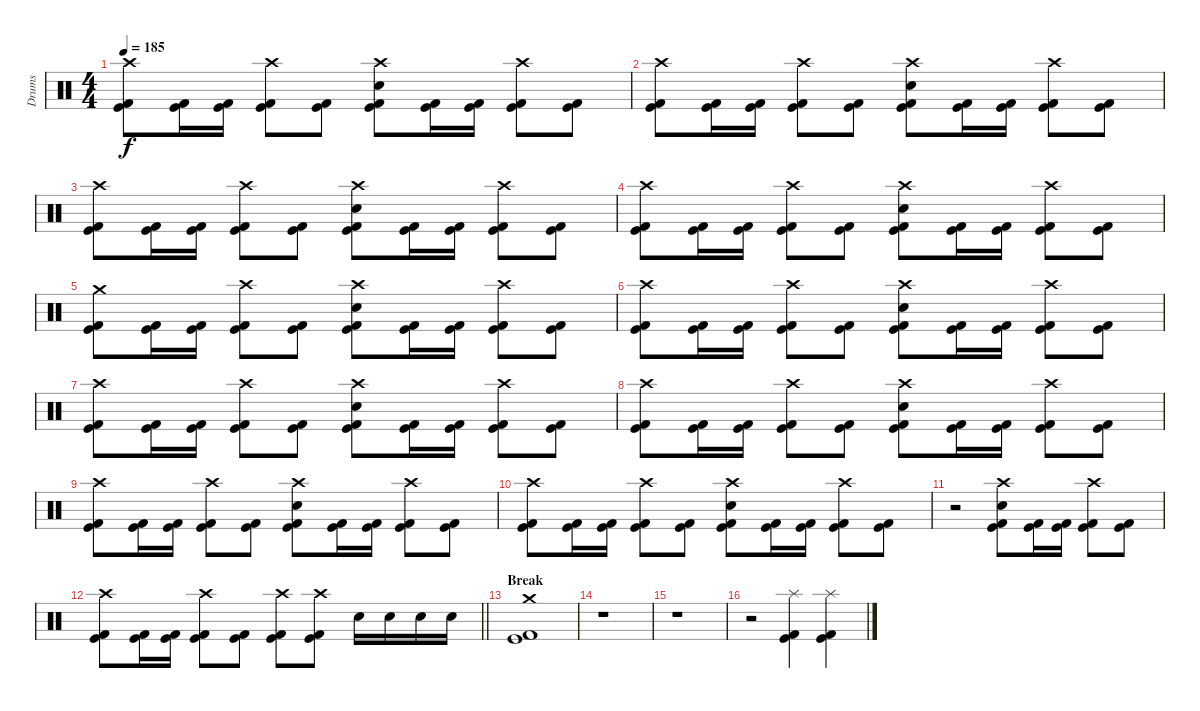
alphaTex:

\track ("Drums" "Drums") {instrument percussion}
\staff {score}
\articulation defaults
\ts (4 4)
\tempo 185
\clef neutral
\ks c
("Crash high (hit)" "Kick (hit) 2" "Kick (hit)").8{dy f} ("Kick (hit) 2" "Kick (hit)").16 ("Kick (hit) 2" "Kick (hit)").16 ("Crash high (hit)" "Kick (hit) 2" "Kick (hit)").8 ("Kick (hit) 2" "Kick (hit)").8 ("Crash high (hit)" "Electric Snare (hit)" "Kick (hit) 2" "Kick (hit)").8 ("Kick (hit) 2" "Kick (hit)").16 ("Kick (hit) 2" "Kick (hit)").16 ("Crash high (hit)" "Kick (hit) 2" "Kick (hit)").8 ("Kick (hit) 2" "Kick (hit)").8 |
("Crash high (hit)" "Kick (hit) 2" "Kick (hit)").8 ("Kick (hit) 2" "Kick (hit)").16 ("Kick (hit) 2" "Kick (hit)").16 ("Crash high (hit)" "Kick (hit) 2" "Kick (hit)").8 ("Kick (hit) 2" "Kick (hit)").8 ("Crash high (hit)" "Electric Snare (hit)" "Kick (hit) 2" "Kick (hit)").8 ("Kick (hit) 2" "Kick (hit)").16 ("Kick (hit) 2" "Kick (hit)").16 ("Crash high (hit)" "Kick (hit) 2" "Kick (hit)").8 ("Kick (hit) 2" "Kick (hit)").8 |
("Crash high (hit)" "Kick (hit) 2" "Kick (hit)").8 ("Kick (hit) 2" "Kick (hit)").16 ("Kick (hit) 2" "Kick (hit)").16 ("Crash high (hit)" "Kick (hit) 2" "Kick (hit)").8 ("Kick (hit) 2" "Kick (hit)").8 ("Crash high (hit)" "Electric Snare (hit)" "Kick (hit) 2" "Kick (hit)").8 ("Kick (hit) 2" "Kick (hit)").16 ("Kick (hit) 2" "Kick (hit)").16 ("Crash high (hit)" "Kick (hit) 2" "Kick (hit)").8 ("Kick (hit) 2" "Kick (hit)").8 |
("Crash high (hit)" "Kick (hit) 2" "Kick (hit)").8 ("Kick (hit) 2" "Kick (hit)").16 ("Kick (hit) 2" "Kick (hit)").16 ("Crash high (hit)" "Kick (hit) 2" "Kick (hit)").8 ("Kick (hit) 2" "Kick (hit)").8 ("Crash high (hit)" "Electric Snare (hit)" "Kick (hit) 2" "Kick (hit)").8 ("Kick (hit) 2" "Kick (hit)").16 ("Kick (hit) 2" "Kick (hit)").16 ("Crash high (hit)" "Kick (hit) 2" "Kick (hit)").8 ("Kick (hit) 2" "Kick (hit)").8 |
("Crash medium (hit)" "Kick (hit) 2" "Kick (hit)").8 ("Kick (hit) 2" "Kick (hit)").16 ("Kick (hit) 2" "Kick (hit)").16 ("Crash high (hit)" "Kick (hit) 2" "Kick (hit)").8 ("Kick (hit) 2" "Kick (hit)").8 ("Crash high (hit)" "Electric Snare (hit)" "Kick (hit) 2" "Kick (hit)").8 ("Kick (hit) 2" "Kick (hit)").16 ("Kick (hit) 2" "Kick (hit)").16 ("Crash high (hit)" "Kick (hit) 2" "Kick (hit)").8 ("Kick (hit) 2" "Kick (hit)").8 |
("Crash high (hit)" "Kick (hit) 2" "Kick (hit)").8 ("Kick (hit) 2" "Kick (hit)").16 ("Kick (hit) 2" "Kick (hit)").16 ("Crash high (hit)" "Kick (hit) 2" "Kick (hit)").8 ("Kick (hit) 2" "Kick (hit)").8 ("Crash high (hit)" "Electric Snare (hit)" "Kick (hit) 2" "Kick (hit)").8 ("Kick (hit) 2" "Kick (hit)").16 ("Kick (hit) 2" "Kick (hit)").16 ("Crash high (hit)" "Kick (hit) 2" "Kick (hit)").8 ("Kick (hit) 2" "Kick (hit)").8 |
("Crash high (hit)" "Kick (hit) 2" "Kick (hit)").8 ("Kick (hit) 2" "Kick (hit)").16 ("Kick (hit) 2" "Kick (hit)").16 ("Crash high (hit)" "Kick (hit) 2" "Kick (hit)").8 ("Kick (hit) 2" "Kick (hit)").8 ("Crash high (hit)" "Electric Snare (hit)" "Kick (hit) 2" "Kick (hit)").8 ("Kick (hit) 2" "Kick (hit)").16 ("Kick (hit) 2" "Kick (hit)").16 ("Crash high (hit)" "Kick (hit) 2" "Kick (hit)").8 ("Kick (hit) 2" "Kick (hit)").8 |
("Crash high (hit)" "Kick (hit) 2" "Kick (hit)").8 ("Kick (hit) 2" "Kick (hit)").16 ("Kick (hit) 2" "Kick (hit)").16 ("Crash high (hit)" "Kick (hit) 2" "Kick (hit)").8 ("Kick (hit) 2" "Kick (hit)").8 ("Crash high (hit)" "Electric Snare (hit)" "Kick (hit) 2" "Kick (hit)").8 ("Kick (hit) 2" "Kick (hit)").16 ("Kick (hit) 2" "Kick (hit)").16 ("Crash high (hit)" "Kick (hit) 2" "Kick (hit)").8 ("Kick (hit) 2" "Kick (hit)").8 |
("Crash high (hit)" "Kick (hit) 2" "Kick (hit)").8 ("Kick (hit) 2" "Kick (hit)").16 ("Kick (hit) 2" "Kick (hit)").16 ("Crash high (hit)" "Kick (hit) 2" "Kick (hit)").8 ("Kick (hit) 2" "Kick (hit)").8 ("Crash high (hit)" "Electric Snare (hit)" "Kick (hit) 2" "Kick (hit)").8 ("Kick (hit) 2" "Kick (hit)").16 ("Kick (hit) 2" "Kick (hit)").16 ("Crash high (hit)" "Kick (hit) 2" "Kick (hit)").8 ("Kick (hit) 2" "Kick (hit)").8 |
("Crash high (hit)" "Kick (hit) 2" "Kick (hit)").8 ("Kick (hit) 2" "Kick (hit)").16 ("Kick (hit) 2" "Kick (hit)").16 ("Crash high (hit)" "Kick (hit) 2" "Kick (hit)").8 ("Kick (hit) 2" "Kick (hit)").8 ("Crash high (hit)" "Electric Snare (hit)" "Kick (hit) 2" "Kick (hit)").8 ("Kick (hit) 2" "Kick (hit)").16 ("Kick (hit) 2" "Kick (hit)").16 ("Crash high (hit)" "Kick (hit) 2" "Kick (hit)").8 ("Kick (hit) 2" "Kick (hit)").8 |
r.2{volume 0} ("Crash high (hit)" "Electric Snare (hit)" "Kick (hit) 2" "Kick (hit)").8{volume 13} ("Kick (hit) 2" "Kick (hit)").16 ("Kick (hit) 2" "Kick (hit)").16 ("Crash high (hit)" "Kick (hit) 2" "Kick (hit)").8 ("Kick (hit) 2" "Kick (hit)").8 |
\barLineRight lightlight
("Crash high (hit)" "Kick (hit) 2" "Kick (hit)").8 ("Kick (hit) 2" "Kick (hit)").16 ("Kick (hit) 2" "Kick (hit)").16 ("Crash high (hit)" "Kick (hit) 2" "Kick (hit)").8 ("Kick (hit) 2" "Kick (hit)").8 ("Crash high (hit)" "Kick (hit) 2" "Kick (hit)").8 ("Crash high (hit)" "Kick (hit) 2" "Kick (hit)").8 "Electric Snare (hit)".16 "Electric Snare (hit)".16 "Electric Snare (hit)".16 "Electric Snare (hit)".16 |
\section ("" "Break")
("Crash medium (hit)" "Kick (hit)" "Kick (hit) 2").1 |
r.1 |
r.1 |
r.2 ("Splash (hit)" "Kick (hit) 2" "Kick (hit)").4 ("Splash (hit)" "Kick (hit) 2" "Kick (hit)").4
